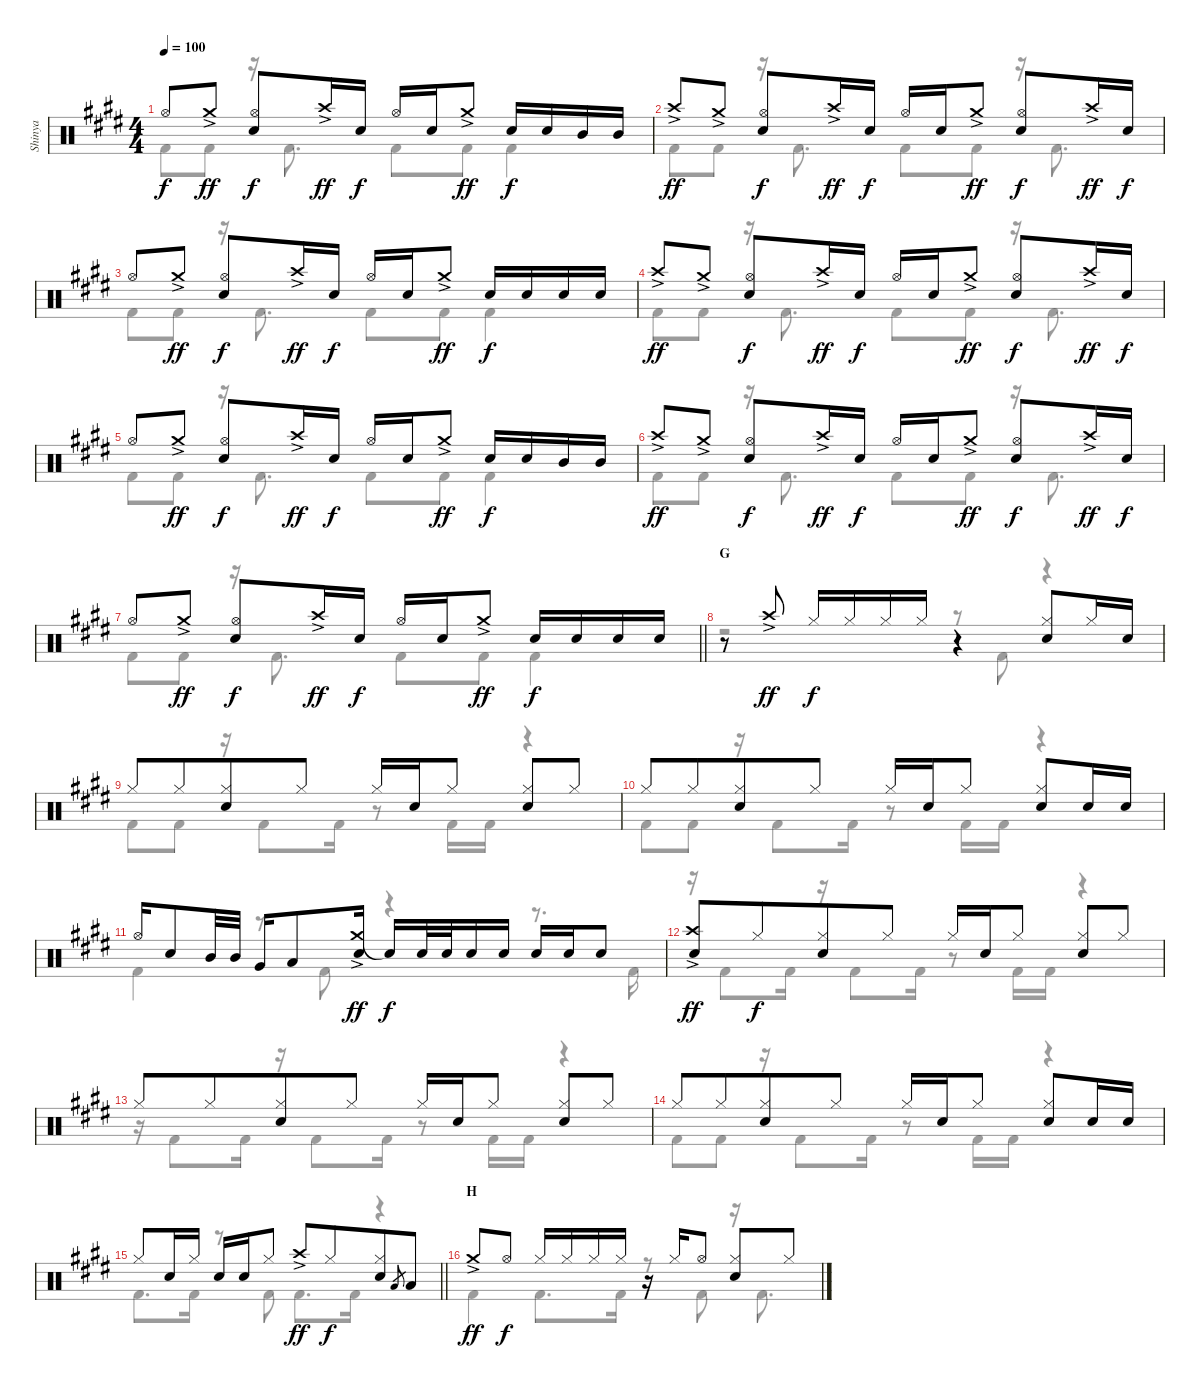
\track ("Shinya" "Shinya") {instrument percussion}
\staff {score}
\articulation defaults
\voice
\ts (4 4)
\tempo 100
\clef neutral
\ks c#minor "Hi-Hat (open)".8{dy f} "Crash medium (hit)"{ac}.8{dy ff}
("Hi-Hat (open)" "Snare (hit) 2").8{dy f} "Crash high (hit)"{ac}.16{dy ff} "Snare (hit) 2".16{dy f} "Hi-Hat (open)".16 "Snare (hit) 2".16 "Crash medium (hit)"{ac}.8{dy ff} "Snare (hit) 2".16{dy f} "Snare (hit) 2".16 "Mid Tom (hit)".16 "Mid Tom (hit)".16 |
"Crash high (hit)"{ac}.8{dy ff} "Crash medium (hit)"{ac}.8 ("Hi-Hat (open)" "Snare (hit) 2").8{dy f} "Crash high (hit)"{ac}.16{dy ff} "Snare (hit) 2".16{dy f} "Hi-Hat (open)".16 "Snare (hit) 2".16 "Crash medium (hit)"{ac}.8{dy ff} ("Hi-Hat (open)" "Snare (hit) 2").8{dy f} "Crash high (hit)"{ac}.16{dy ff} "Snare (hit) 2".16{dy f} |
"Hi-Hat (open)".8 "Crash medium (hit)"{ac}.8{dy ff} ("Hi-Hat (open)" "Snare (hit) 2").8{dy f} "Crash high (hit)"{ac}.16{dy ff} "Snare (hit) 2".16{dy f} "Hi-Hat (open)".16 "Snare (hit) 2".16 "Crash medium (hit)"{ac}.8{dy ff} "Snare (hit) 2".16{dy f} "Snare (hit) 2".16 "Snare (hit) 2".16 "Snare (hit) 2".16 |
"Crash high (hit)"{ac}.8{dy ff} "Crash medium (hit)"{ac}.8 ("Hi-Hat (open)" "Snare (hit) 2").8{dy f} "Crash high (hit)"{ac}.16{dy ff} "Snare (hit) 2".16{dy f} "Hi-Hat (open)".16 "Snare (hit) 2".16 "Crash medium (hit)"{ac}.8{dy ff} ("Hi-Hat (open)" "Snare (hit) 2").8{dy f} "Crash high (hit)"{ac}.16{dy ff} "Snare (hit) 2".16{dy f} |
"Hi-Hat (open)".8 "Crash medium (hit)"{ac}.8{dy ff} ("Hi-Hat (open)" "Snare (hit) 2").8{dy f} "Crash high (hit)"{ac}.16{dy ff} "Snare (hit) 2".16{dy f} "Hi-Hat (open)".16 "Snare (hit) 2".16 "Crash medium (hit)"{ac}.8{dy ff} "Snare (hit) 2".16{dy f} "Snare (hit) 2".16 "Mid Tom (hit)".16 "Mid Tom (hit)".16 |
"Crash high (hit)"{ac}.8{dy ff} "Crash medium (hit)"{ac}.8 ("Hi-Hat (open)" "Snare (hit) 2").8{dy f} "Crash high (hit)"{ac}.16{dy ff} "Snare (hit) 2".16{dy f} "Hi-Hat (open)".16 "Snare (hit) 2".16 "Crash medium (hit)"{ac}.8{dy ff} ("Hi-Hat (open)" "Snare (hit) 2").8{dy f} "Crash high (hit)"{ac}.16{dy ff} "Snare (hit) 2".16{dy f} |
\barLineRight lightlight "Hi-Hat (open)".8 "Crash medium (hit)"{ac}.8{dy ff}
("Hi-Hat (open)" "Snare (hit) 2").8{dy f} "Crash high (hit)"{ac}.16{dy ff} "Snare (hit) 2".16{dy f} "Hi-Hat (open)".16 "Snare (hit) 2".16 "Crash medium (hit)"{ac}.8{dy ff} "Snare (hit) 2".16{dy f} "Snare (hit) 2".16 "Snare (hit) 2".16 "Snare (hit) 2".16 |
\section ("" "G")
r.8 "Crash high (hit)"{ac}.8{dy ff} "Hi-Hat (closed)".16{dy f} "Hi-Hat (closed)".16 "Hi-Hat (closed)".16 "Hi-Hat (closed)".16 r.4 ("Hi-Hat (closed)" "Snare (hit) 2").8 "Hi-Hat (closed)".16 "Snare (hit) 2".16 |
"Hi-Hat (closed)".8 "Hi-Hat (closed)".8{beam merge} ("Hi-Hat (closed)" "Snare (hit) 2").8 "Hi-Hat (closed)".8 "Hi-Hat (closed)".16 "Snare (hit) 2".16 "Hi-Hat (closed)".8 ("Hi-Hat (closed)" "Snare (hit) 2").8 "Hi-Hat (closed)".8 |
"Hi-Hat (closed)".8 "Hi-Hat (closed)".8{beam merge} ("Hi-Hat (closed)" "Snare (hit) 2").8 "Hi-Hat (closed)".8 "Hi-Hat (closed)".16 "Snare (hit) 2".16 "Hi-Hat (closed)".8 ("Hi-Hat (closed)" "Snare (hit) 2").8 "Snare (hit) 2".16 "Snare (hit) 2".16 |
"Hi-Hat (open)".16 "Snare (hit) 2".8 "Mid Tom (hit)".32 "Mid Tom (hit)".32 "Very Low Tom (hit)".16 "Low Tom (hit)".8 ("Crash medium (hit)"{ac} "Snare (hit) 2").16{dy ff} "Snare (hit)"{t}.16{dy f} "Snare (hit) 2".32 "Snare (hit) 2".32{beam splitsecondary} "Snare (hit) 2".16 "Snare (hit) 2".16 "Snare (hit) 2".16 "Snare (hit) 2".16 "Snare (hit) 2".8 |
("Crash high (hit)"{ac} "Snare (hit) 2").8{dy ff} "Hi-Hat (closed)".8{dy f beam merge} ("Hi-Hat (closed)" "Snare (hit) 2").8 "Hi-Hat (closed)".8 "Hi-Hat (closed)".16 "Snare (hit) 2".16 "Hi-Hat (closed)".8 ("Hi-Hat (closed)" "Snare (hit) 2").8 "Hi-Hat (closed)".8 |
"Hi-Hat (closed)".8 "Hi-Hat (closed)".8{beam merge} ("Hi-Hat (closed)" "Snare (hit) 2").8 "Hi-Hat (closed)".8 "Hi-Hat (closed)".16 "Snare (hit) 2".16 "Hi-Hat (closed)".8 ("Hi-Hat (closed)" "Snare (hit) 2").8 "Hi-Hat (closed)".8 |
"Hi-Hat (closed)".8 "Hi-Hat (closed)".8{beam merge} ("Hi-Hat (closed)" "Snare (hit) 2").8 "Hi-Hat (closed)".8 "Hi-Hat (closed)".16 "Snare (hit) 2".16 "Hi-Hat (closed)".8 ("Hi-Hat (closed)" "Snare (hit) 2").8 "Snare (hit) 2".16 "Snare (hit) 2".16 |
\barLineRight lightlight "Hi-Hat (closed)".8 "Snare (hit) 2".16 "Hi-Hat (closed)".16 "Snare (hit) 2".16 "Snare (hit) 2".16 "Hi-Hat (closed)".8 "Crash high (hit)"{ac}.8{dy ff} "Hi-Hat (closed)".8{dy f beam merge}
("Hi-Hat (closed)" "Snare (hit) 2").8 "Low Tom (hit)".8{gr} "Low Tom (hit)".8 |
\section ("" "H")
"Crash medium (hit)"{ac}.8{dy ff} "Hi-Hat (open)".8{dy f} "Hi-Hat (closed)".16 "Hi-Hat (closed)".16 "Hi-Hat (closed)".16 "Hi-Hat (closed)".16 r.16 "Hi-Hat (closed)".16 "Hi-Hat (open)".8 ("Hi-Hat (closed)" "Snare (hit) 2").8 "Hi-Hat (closed)".8
\voice
\clef neutral
\ottava regular
\simile none
\ks c#minor "Kick (hit) 2".8{dy f} "Kick (hit) 2".8
r.16 "Kick (hit) 2".8{d} "Kick (hit) 2".8 "Kick (hit) 2".8 "Kick (hit) 2".4 |
"Kick (hit) 2".8 "Kick (hit) 2".8 r.16 "Kick (hit) 2".8{d} "Kick (hit) 2".8 "Kick (hit) 2".8 r.16 "Kick (hit) 2".8{d} |
"Kick (hit) 2".8 "Kick (hit) 2".8 r.16 "Kick (hit) 2".8{d} "Kick (hit) 2".8 "Kick (hit) 2".8 "Kick (hit) 2".4 |
"Kick (hit) 2".8 "Kick (hit) 2".8 r.16 "Kick (hit) 2".8{d} "Kick (hit) 2".8 "Kick (hit) 2".8 r.16 "Kick (hit) 2".8{d} |
"Kick (hit) 2".8 "Kick (hit) 2".8 r.16 "Kick (hit) 2".8{d} "Kick (hit) 2".8 "Kick (hit) 2".8 "Kick (hit) 2".4 |
"Kick (hit) 2".8 "Kick (hit) 2".8 r.16 "Kick (hit) 2".8{d} "Kick (hit) 2".8 "Kick (hit) 2".8 r.16 "Kick (hit) 2".8{d} |
\barLineRight lightlight "Kick (hit) 2".8 "Kick (hit) 2".8
r.16 "Kick (hit) 2".8{d} "Kick (hit) 2".8 "Kick (hit) 2".8 "Kick (hit) 2".4 |
r.2 r.8 "Kick (hit) 2".8 r.4 |
"Kick (hit) 2".8 "Kick (hit) 2".8 r.16 "Kick (hit) 2".8 "Kick (hit) 2".16 r.8 "Kick (hit) 2".16 "Kick (hit) 2".16 r.4 |
"Kick (hit) 2".8 "Kick (hit) 2".8 r.16 "Kick (hit) 2".8 "Kick (hit) 2".16 r.8 "Kick (hit) 2".16 "Kick (hit) 2".16 r.4 |
"Kick (hit) 2".4 r.8 "Kick (hit) 2".8 r.4 r.8{d} "Kick (hit) 2".16 |
r.16 "Kick (hit) 2".8 "Kick (hit) 2".16 r.16 "Kick (hit) 2".8 "Kick (hit) 2".16 r.8 "Kick (hit) 2".16 "Kick (hit) 2".16 r.4 |
r.16 "Kick (hit) 2".8 "Kick (hit) 2".16 r.16 "Kick (hit) 2".8 "Kick (hit) 2".16 r.8 "Kick (hit) 2".16 "Kick (hit) 2".16 r.4 |
"Kick (hit) 2".8 "Kick (hit) 2".8 r.16 "Kick (hit) 2".8 "Kick (hit) 2".16 r.8 "Kick (hit) 2".16 "Kick (hit) 2".16 r.4 |
\barLineRight lightlight "Kick (hit) 2".8{d} "Kick (hit) 2".16
r.8 "Kick (hit) 2".8 "Kick (hit) 2".8{d} "Kick (hit) 2".16 r.4 |
"Kick (hit) 2".4 "Kick (hit) 2".8{d} "Kick (hit) 2".16 r.8 "Kick (hit) 2".8 r.16 "Kick (hit) 2".8{d}
